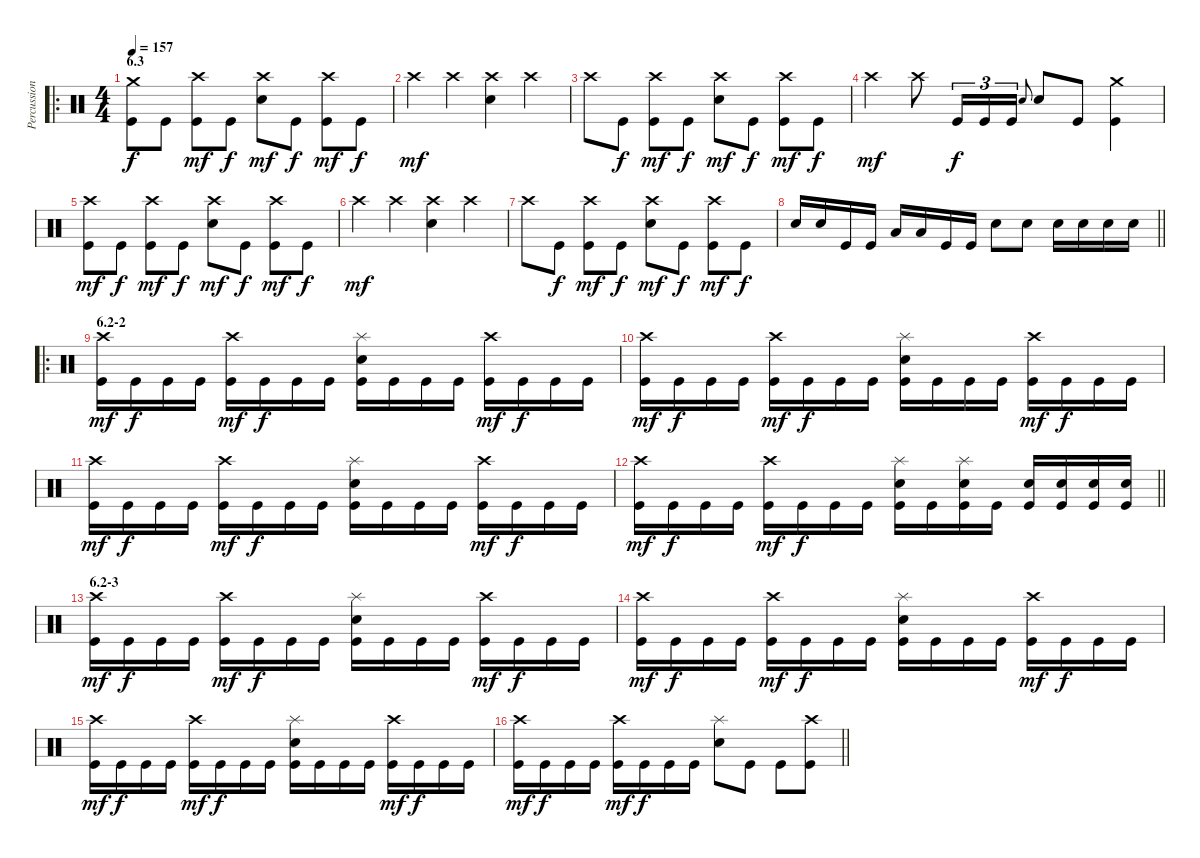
\track ("Percussion" "Percussion") {instrument percussion}
\staff {score}
\articulation defaults
\ro
\ts (4 4)
\section ("" "6.3")
\tempo 157
\clef neutral
\ks c
("Crash medium (hit)" "Kick (hit)").8{dy f} "Kick (hit)".8 ("Crash high (hit)" "Kick (hit)").8{dy mf} "Kick (hit)".8{dy f} ("Crash high (hit)" "Snare (hit) 2").8{dy mf} "Kick (hit)".8{dy f} ("Crash high (hit)" "Kick (hit)").8{dy mf} "Kick (hit)".8{dy f} |
"Crash high (hit)".4{dy mf} "Crash high (hit)".4 ("Crash high (hit)" "Snare (hit) 2").4 "Crash high (hit)".4 |
"Crash high (hit)".8 "Kick (hit)".8{dy f} ("Crash high (hit)" "Kick (hit)").8{dy mf} "Kick (hit)".8{dy f} ("Crash high (hit)" "Snare (hit) 2").8{dy mf} "Kick (hit)".8{dy f} ("Crash high (hit)" "Kick (hit)").8{dy mf} "Kick (hit)".8{dy f} |
"Crash high (hit)".4{dy mf} "Crash high (hit)".8 "Kick (hit)".16{tu (3 2) dy f} "Kick (hit)".16{tu (3 2)} "Kick (hit)".16{tu (3 2)} "Snare (hit) 2".8{gr onbeat} "Snare (hit) 2".8 "Kick (hit)".8 ("Crash medium (hit)" "Kick (hit)").4{volume 0} |
("Crash high (hit)" "Kick (hit)").8{dy mf volume 5} "Kick (hit)".8{dy f} ("Crash high (hit)" "Kick (hit)").8{dy mf} "Kick (hit)".8{dy f} ("Crash high (hit)" "Snare (hit) 2").8{dy mf} "Kick (hit)".8{dy f} ("Crash high (hit)" "Kick (hit)").8{dy mf} "Kick (hit)".8{dy f} |
"Crash high (hit)".4{dy mf} "Crash high (hit)".4 ("Crash high (hit)" "Snare (hit) 2").4 "Crash high (hit)".4 |
"Crash high (hit)".8 "Kick (hit)".8{dy f} ("Crash high (hit)" "Kick (hit)").8{dy mf} "Kick (hit)".8{dy f} ("Crash high (hit)" "Snare (hit) 2").8{dy mf} "Kick (hit)".8{dy f} ("Crash high (hit)" "Kick (hit)").8{dy mf} "Kick (hit)".8{dy f} |
\barLineRight lightlight "Snare (hit) 2".16 "Snare (hit) 2".16 "Kick (hit)".16 "Kick (hit)".16 "Low Tom (hit)".16 "Low Tom (hit)".16 "Kick (hit)".16 "Kick (hit)".16 "Snare (hit) 2".8 "Snare (hit) 2".8 "Snare (hit) 2".16 "Snare (hit) 2".16 "Snare (hit) 2".16 "Snare (hit) 2".16
|
\ro
\section ("" "6.2-2")
("Crash high (hit)" "Kick (hit)").16{dy mf} "Kick (hit)".16{dy f} "Kick (hit)".16 "Kick (hit)".16 ("Crash high (hit)" "Kick (hit)").16{dy mf} "Kick (hit)".16{dy f} "Kick (hit)".16 "Kick (hit)".16 ("Splash (hit)" "Snare (hit) 2" "Kick (hit)").16 "Kick (hit)".16 "Kick (hit)".16 "Kick (hit)".16 ("Crash high (hit)" "Kick (hit)").16{dy mf} "Kick (hit)".16{dy f} "Kick (hit)".16 "Kick (hit)".16 |
("Crash high (hit)" "Kick (hit)").16{dy mf} "Kick (hit)".16{dy f} "Kick (hit)".16 "Kick (hit)".16 ("Crash high (hit)" "Kick (hit)").16{dy mf} "Kick (hit)".16{dy f} "Kick (hit)".16 "Kick (hit)".16 ("Splash (hit)" "Snare (hit) 2" "Kick (hit)").16 "Kick (hit)".16 "Kick (hit)".16 "Kick (hit)".16 ("Crash high (hit)" "Kick (hit)").16{dy mf} "Kick (hit)".16{dy f} "Kick (hit)".16 "Kick (hit)".16 |
("Crash high (hit)" "Kick (hit)").16{dy mf} "Kick (hit)".16{dy f} "Kick (hit)".16 "Kick (hit)".16 ("Crash high (hit)" "Kick (hit)").16{dy mf} "Kick (hit)".16{dy f} "Kick (hit)".16 "Kick (hit)".16 ("Splash (hit)" "Snare (hit) 2" "Kick (hit)").16 "Kick (hit)".16 "Kick (hit)".16 "Kick (hit)".16 ("Crash high (hit)" "Kick (hit)").16{dy mf} "Kick (hit)".16{dy f} "Kick (hit)".16 "Kick (hit)".16 |
\barLineRight lightlight
("Crash high (hit)" "Kick (hit)").16{dy mf} "Kick (hit)".16{dy f} "Kick (hit)".16 "Kick (hit)".16 ("Crash high (hit)" "Kick (hit)").16{dy mf} "Kick (hit)".16{dy f} "Kick (hit)".16 "Kick (hit)".16 ("Splash (hit)" "Snare (hit) 2" "Kick (hit)").16 "Kick (hit)".16 ("Splash (hit)" "Snare (hit) 2" "Kick (hit)").16 "Kick (hit)".16 ("Snare (hit) 2" "Kick (hit)").16 ("Snare (hit) 2" "Kick (hit)").16 ("Snare (hit) 2" "Kick (hit)").16 ("Snare (hit) 2" "Kick (hit)").16 |
\section ("" "6.2-3")
("Crash high (hit)" "Kick (hit)").16{dy mf} "Kick (hit)".16{dy f} "Kick (hit)".16 "Kick (hit)".16 ("Crash high (hit)" "Kick (hit)").16{dy mf} "Kick (hit)".16{dy f} "Kick (hit)".16 "Kick (hit)".16 ("Splash (hit)" "Snare (hit) 2" "Kick (hit)").16 "Kick (hit)".16 "Kick (hit)".16 "Kick (hit)".16 ("Crash high (hit)" "Kick (hit)").16{dy mf} "Kick (hit)".16{dy f} "Kick (hit)".16 "Kick (hit)".16 |
("Crash high (hit)" "Kick (hit)").16{dy mf} "Kick (hit)".16{dy f} "Kick (hit)".16 "Kick (hit)".16 ("Crash high (hit)" "Kick (hit)").16{dy mf} "Kick (hit)".16{dy f} "Kick (hit)".16 "Kick (hit)".16 ("Splash (hit)" "Snare (hit) 2" "Kick (hit)").16 "Kick (hit)".16 "Kick (hit)".16 "Kick (hit)".16 ("Crash high (hit)" "Kick (hit)").16{dy mf} "Kick (hit)".16{dy f} "Kick (hit)".16 "Kick (hit)".16 |
("Crash high (hit)" "Kick (hit)").16{dy mf} "Kick (hit)".16{dy f} "Kick (hit)".16 "Kick (hit)".16 ("Crash high (hit)" "Kick (hit)").16{dy mf} "Kick (hit)".16{dy f} "Kick (hit)".16 "Kick (hit)".16 ("Splash (hit)" "Snare (hit) 2" "Kick (hit)").16 "Kick (hit)".16 "Kick (hit)".16 "Kick (hit)".16 ("Crash high (hit)" "Kick (hit)").16{dy mf} "Kick (hit)".16{dy f} "Kick (hit)".16 "Kick (hit)".16 |
\barLineRight lightlight
("Crash high (hit)" "Kick (hit)").16{dy mf} "Kick (hit)".16{dy f} "Kick (hit)".16 "Kick (hit)".16 ("Crash high (hit)" "Kick (hit)").16{dy mf} "Kick (hit)".16{dy f} "Kick (hit)".16 "Kick (hit)".16 ("Splash (hit)" "Snare (hit) 2").8 "Kick (hit)".8 "Kick (hit)".8 ("Crash high (hit)" "Kick (hit)").8
